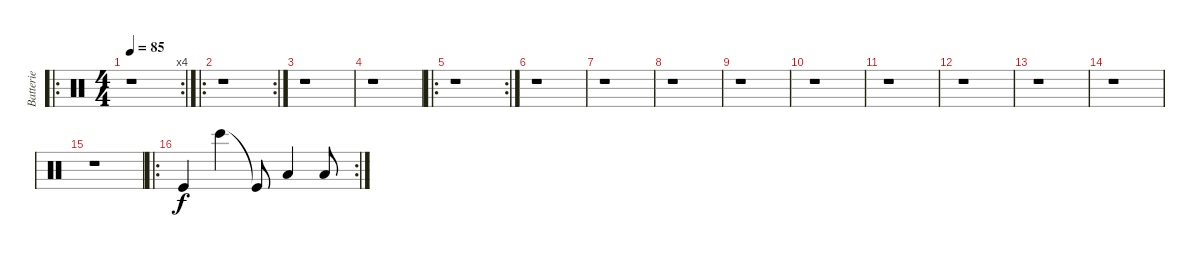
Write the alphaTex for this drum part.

\track ("Batterie" "Batterie") {instrument percussion}
\staff {score}
\articulation defaults
\ro
\rc 4
\ts (4 4)
\tempo 85
\clef neutral
\ks c
r.1{dy f} |
\ro
\rc 2
r.1 |
r.1 |
r.1 |
\ro
\rc 2
r.1 |
r.1 |
r.1 |
r.1 |
r.1 |
r.1 |
r.1 |
r.1 |
r.1 |
r.1 |
r.1 |
\ro
\rc 2 "Kick (hit)".4 "Bongo High (hit)".4 "Kick (hit)"{t}.8 "Low Tom (hit)".4 "Low Tom (hit)".8
